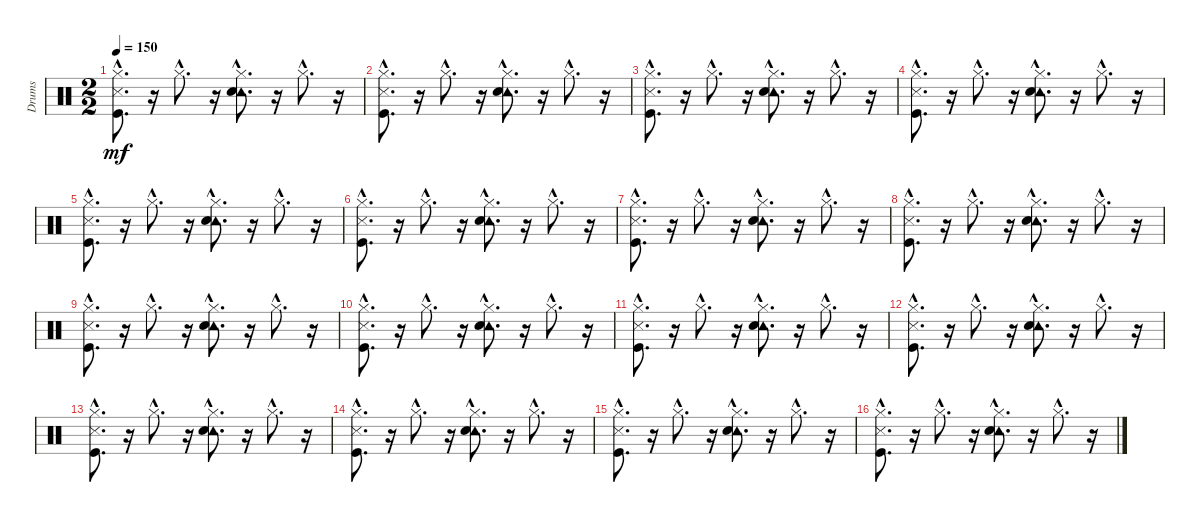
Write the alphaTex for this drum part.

\track ("Drums" "Drums") {instrument percussion}
\staff {score}
\articulation defaults
\ts (2 2)
\tempo 150
\clef neutral
\ks c
("Hi-Hat (closed)"{hac} "Kick (hit)"{hac} "Metronome (hit)"{hac}).8{d dy mf} r.16 "Hi-Hat (closed)"{hac}.8{d} r.16 ("Hi-Hat (closed)"{hac} "Tambourine (hit)"{hac} "Electric Snare (hit)"{hac}).8{d} r.16 "Hi-Hat (closed)"{hac}.8{d} r.16 |
("Hi-Hat (closed)"{hac} "Kick (hit)"{hac} "Metronome (hit)"{hac}).8{d} r.16 "Hi-Hat (closed)"{hac}.8{d} r.16 ("Hi-Hat (closed)"{hac} "Tambourine (hit)"{hac} "Electric Snare (hit)"{hac}).8{d} r.16 "Hi-Hat (closed)"{hac}.8{d} r.16 |
("Hi-Hat (closed)"{hac} "Kick (hit)"{hac} "Metronome (hit)"{hac}).8{d} r.16 "Hi-Hat (closed)"{hac}.8{d} r.16 ("Hi-Hat (closed)"{hac} "Tambourine (hit)"{hac} "Electric Snare (hit)"{hac}).8{d} r.16 "Hi-Hat (closed)"{hac}.8{d} r.16 |
("Hi-Hat (closed)"{hac} "Kick (hit)"{hac} "Metronome (hit)"{hac}).8{d} r.16 "Hi-Hat (closed)"{hac}.8{d} r.16 ("Hi-Hat (closed)"{hac} "Tambourine (hit)"{hac} "Electric Snare (hit)"{hac}).8{d} r.16 "Hi-Hat (closed)"{hac}.8{d} r.16 |
("Hi-Hat (closed)"{hac} "Kick (hit)"{hac} "Metronome (hit)"{hac}).8{d} r.16 "Hi-Hat (closed)"{hac}.8{d} r.16 ("Hi-Hat (closed)"{hac} "Tambourine (hit)"{hac} "Electric Snare (hit)"{hac}).8{d} r.16 "Hi-Hat (closed)"{hac}.8{d} r.16 |
("Hi-Hat (closed)"{hac} "Kick (hit)"{hac} "Metronome (hit)"{hac}).8{d} r.16 "Hi-Hat (closed)"{hac}.8{d} r.16 ("Hi-Hat (closed)"{hac} "Tambourine (hit)"{hac} "Electric Snare (hit)"{hac}).8{d} r.16 "Hi-Hat (closed)"{hac}.8{d} r.16 |
("Hi-Hat (closed)"{hac} "Kick (hit)"{hac} "Metronome (hit)"{hac}).8{d} r.16 "Hi-Hat (closed)"{hac}.8{d} r.16 ("Hi-Hat (closed)"{hac} "Tambourine (hit)"{hac} "Electric Snare (hit)"{hac}).8{d} r.16 "Hi-Hat (closed)"{hac}.8{d} r.16 |
("Hi-Hat (closed)"{hac} "Kick (hit)"{hac} "Metronome (hit)"{hac}).8{d} r.16 "Hi-Hat (closed)"{hac}.8{d} r.16 ("Hi-Hat (closed)"{hac} "Tambourine (hit)"{hac} "Electric Snare (hit)"{hac}).8{d} r.16 "Hi-Hat (closed)"{hac}.8{d} r.16 |
("Hi-Hat (closed)"{hac} "Kick (hit)"{hac} "Metronome (hit)"{hac}).8{d} r.16 "Hi-Hat (closed)"{hac}.8{d} r.16 ("Hi-Hat (closed)"{hac} "Tambourine (hit)"{hac} "Electric Snare (hit)"{hac}).8{d} r.16 "Hi-Hat (closed)"{hac}.8{d} r.16 |
("Hi-Hat (closed)"{hac} "Kick (hit)"{hac} "Metronome (hit)"{hac}).8{d} r.16 "Hi-Hat (closed)"{hac}.8{d} r.16 ("Hi-Hat (closed)"{hac} "Tambourine (hit)"{hac} "Electric Snare (hit)"{hac}).8{d} r.16 "Hi-Hat (closed)"{hac}.8{d} r.16 |
("Hi-Hat (closed)"{hac} "Kick (hit)"{hac} "Metronome (hit)"{hac}).8{d} r.16 "Hi-Hat (closed)"{hac}.8{d} r.16 ("Hi-Hat (closed)"{hac} "Tambourine (hit)"{hac} "Electric Snare (hit)"{hac}).8{d} r.16 "Hi-Hat (closed)"{hac}.8{d} r.16 |
("Hi-Hat (closed)"{hac} "Kick (hit)"{hac} "Metronome (hit)"{hac}).8{d} r.16 "Hi-Hat (closed)"{hac}.8{d} r.16 ("Hi-Hat (closed)"{hac} "Tambourine (hit)"{hac} "Electric Snare (hit)"{hac}).8{d} r.16 "Hi-Hat (closed)"{hac}.8{d} r.16 |
("Hi-Hat (closed)"{hac} "Kick (hit)"{hac} "Metronome (hit)"{hac}).8{d} r.16 "Hi-Hat (closed)"{hac}.8{d} r.16 ("Hi-Hat (closed)"{hac} "Tambourine (hit)"{hac} "Electric Snare (hit)"{hac}).8{d} r.16 "Hi-Hat (closed)"{hac}.8{d} r.16 |
("Hi-Hat (closed)"{hac} "Kick (hit)"{hac} "Metronome (hit)"{hac}).8{d} r.16 "Hi-Hat (closed)"{hac}.8{d} r.16 ("Hi-Hat (closed)"{hac} "Tambourine (hit)"{hac} "Electric Snare (hit)"{hac}).8{d} r.16 "Hi-Hat (closed)"{hac}.8{d} r.16 |
("Hi-Hat (closed)"{hac} "Kick (hit)"{hac} "Metronome (hit)"{hac}).8{d} r.16 "Hi-Hat (closed)"{hac}.8{d} r.16 ("Hi-Hat (closed)"{hac} "Tambourine (hit)"{hac} "Electric Snare (hit)"{hac}).8{d} r.16 "Hi-Hat (closed)"{hac}.8{d} r.16 |
("Hi-Hat (closed)"{hac} "Kick (hit)"{hac} "Metronome (hit)"{hac}).8{d} r.16 "Hi-Hat (closed)"{hac}.8{d} r.16 ("Hi-Hat (closed)"{hac} "Tambourine (hit)"{hac} "Electric Snare (hit)"{hac}).8{d} r.16 "Hi-Hat (closed)"{hac}.8{d} r.16
